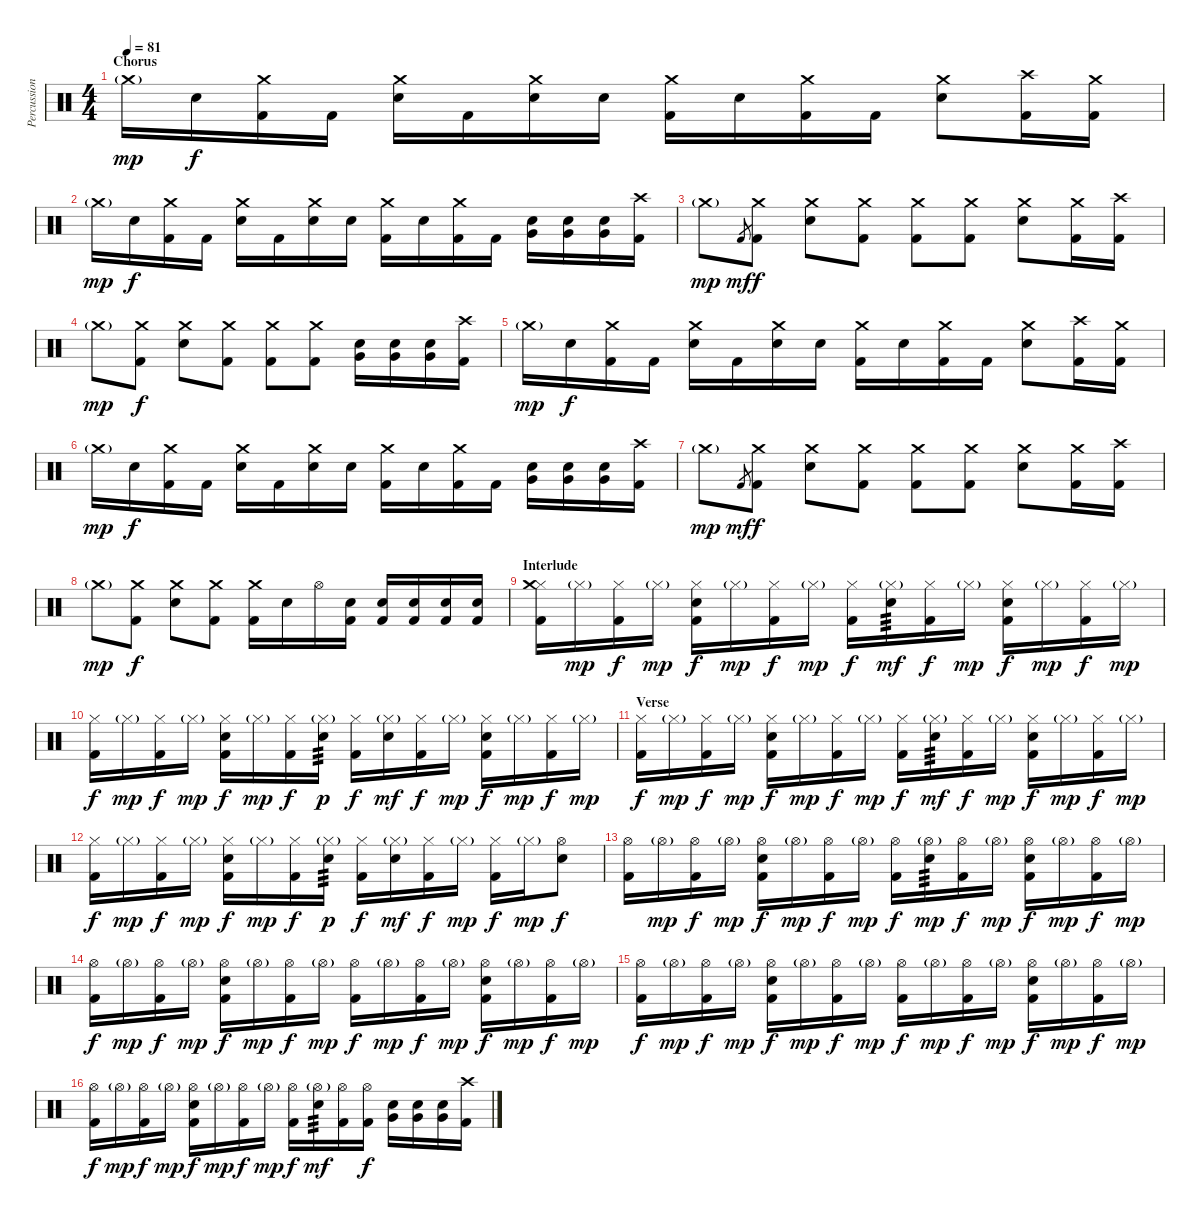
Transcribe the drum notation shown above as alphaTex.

\track ("Percussion" "Percussion") {instrument percussion}
\staff {score}
\articulation defaults
\ts (4 4)
\section ("" "Chorus")
\tempo 81
\clef neutral
\ks c "Crash medium (hit)"{g}.16{dy mp} "Electric Snare (hit)".16{dy f}
("Crash medium (hit)" "Kick (hit) 2").16 "Kick (hit) 2".16 ("Crash medium (hit)" "Electric Snare (hit)").16 "Kick (hit) 2".16 ("Crash medium (hit)" "Electric Snare (hit)").16 "Electric Snare (hit)".16 ("Crash medium (hit)" "Kick (hit) 2").16 "Electric Snare (hit)".16 ("Crash medium (hit)" "Kick (hit) 2").16 "Kick (hit) 2".16 ("Crash medium (hit)" "Electric Snare (hit)").8 ("Crash high (hit)" "Kick (hit) 2").16 ("Crash medium (hit)" "Kick (hit) 2").16 |
"Crash medium (hit)"{g}.16{dy mp} "Electric Snare (hit)".16{dy f} ("Crash medium (hit)" "Kick (hit) 2").16 "Kick (hit) 2".16 ("Crash medium (hit)" "Electric Snare (hit)").16 "Kick (hit) 2".16 ("Crash medium (hit)" "Electric Snare (hit)").16 "Electric Snare (hit)".16 ("Crash medium (hit)" "Kick (hit) 2").16 "Electric Snare (hit)".16 ("Crash medium (hit)" "Kick (hit) 2").16 "Kick (hit) 2".16 ("Very Low Tom (hit)" "Electric Snare (hit)").16 ("Very Low Tom (hit)" "Electric Snare (hit)").16 ("Very Low Tom (hit)" "Electric Snare (hit)").16 ("Crash high (hit)" "Kick (hit) 2").16 |
"Crash medium (hit)"{g}.8{dy mp} "Kick (hit) 2".8{gr dy mf} ("Crash medium (hit)" "Kick (hit) 2").8{dy f} ("Crash medium (hit)" "Electric Snare (hit)").8 ("Crash medium (hit)" "Kick (hit) 2").8 ("Crash medium (hit)" "Kick (hit) 2").8 ("Crash medium (hit)" "Kick (hit) 2").8 ("Crash medium (hit)" "Electric Snare (hit)").8 ("Crash medium (hit)" "Kick (hit) 2").16 ("Crash high (hit)" "Kick (hit) 2").16 |
"Crash medium (hit)"{g}.8{dy mp} ("Crash medium (hit)" "Kick (hit) 2").8{dy f} ("Crash medium (hit)" "Electric Snare (hit)").8 ("Crash medium (hit)" "Kick (hit) 2").8 ("Crash medium (hit)" "Kick (hit) 2").8 ("Crash medium (hit)" "Kick (hit) 2").8 ("Very Low Tom (hit)" "Electric Snare (hit)").16 ("Very Low Tom (hit)" "Electric Snare (hit)").16 ("Very Low Tom (hit)" "Electric Snare (hit)").16 ("Crash high (hit)" "Kick (hit) 2").16 |
"Crash medium (hit)"{g}.16{dy mp} "Electric Snare (hit)".16{dy f} ("Crash medium (hit)" "Kick (hit) 2").16 "Kick (hit) 2".16 ("Crash medium (hit)" "Electric Snare (hit)").16 "Kick (hit) 2".16 ("Crash medium (hit)" "Electric Snare (hit)").16 "Electric Snare (hit)".16 ("Crash medium (hit)" "Kick (hit) 2").16 "Electric Snare (hit)".16 ("Crash medium (hit)" "Kick (hit) 2").16 "Kick (hit) 2".16 ("Crash medium (hit)" "Electric Snare (hit)").8 ("Crash high (hit)" "Kick (hit) 2").16 ("Crash medium (hit)" "Kick (hit) 2").16 |
"Crash medium (hit)"{g}.16{dy mp} "Electric Snare (hit)".16{dy f} ("Crash medium (hit)" "Kick (hit) 2").16 "Kick (hit) 2".16 ("Crash medium (hit)" "Electric Snare (hit)").16 "Kick (hit) 2".16 ("Crash medium (hit)" "Electric Snare (hit)").16 "Electric Snare (hit)".16 ("Crash medium (hit)" "Kick (hit) 2").16 "Electric Snare (hit)".16 ("Crash medium (hit)" "Kick (hit) 2").16 "Kick (hit) 2".16 ("Very Low Tom (hit)" "Electric Snare (hit)").16 ("Very Low Tom (hit)" "Electric Snare (hit)").16 ("Very Low Tom (hit)" "Electric Snare (hit)").16 ("Crash high (hit)" "Kick (hit) 2").16 |
"Crash medium (hit)"{g}.8{dy mp} "Kick (hit) 2".8{gr dy mf} ("Crash medium (hit)" "Kick (hit) 2").8{dy f} ("Crash medium (hit)" "Electric Snare (hit)").8 ("Crash medium (hit)" "Kick (hit) 2").8 ("Crash medium (hit)" "Kick (hit) 2").8 ("Crash medium (hit)" "Kick (hit) 2").8 ("Crash medium (hit)" "Electric Snare (hit)").8 ("Crash medium (hit)" "Kick (hit) 2").16 ("Crash high (hit)" "Kick (hit) 2").16 |
"Crash medium (hit)"{g}.8{dy mp} ("Crash medium (hit)" "Kick (hit) 2").8{dy f} ("Crash medium (hit)" "Electric Snare (hit)").8 ("Crash medium (hit)" "Kick (hit) 2").8 ("Crash medium (hit)" "Kick (hit) 2").16 "Electric Snare (hit)".16 "Hi-Hat (open)".16 ("Electric Snare (hit)" "Kick (hit) 2").16 ("Electric Snare (hit)" "Kick (hit) 2").16 ("Electric Snare (hit)" "Kick (hit) 2").16 ("Electric Snare (hit)" "Kick (hit) 2").16 ("Electric Snare (hit)" "Kick (hit) 2").16 |
\section ("" "Interlude")
("Hi-Hat (closed)" "Crash medium (hit)" "Kick (hit) 2").16 "Hi-Hat (closed)"{g}.16{dy mp} ("Hi-Hat (closed)" "Kick (hit) 2").16{dy f} "Hi-Hat (closed)"{g}.16{dy mp} ("Hi-Hat (closed)" "Electric Snare (hit)" "Kick (hit) 2").16{dy f} "Hi-Hat (closed)"{g}.16{dy mp} ("Hi-Hat (closed)" "Kick (hit) 2").16{dy f} "Hi-Hat (closed)"{g}.16{dy mp} ("Hi-Hat (closed)" "Kick (hit) 2").16{dy f} ("Hi-Hat (closed)"{g} "Electric Snare (hit)").16{tp 3 dy mf} ("Hi-Hat (closed)" "Kick (hit) 2").16{dy f} "Hi-Hat (closed)"{g}.16{dy mp} ("Hi-Hat (closed)" "Electric Snare (hit)" "Kick (hit) 2").16{dy f} "Hi-Hat (closed)"{g}.16{dy mp} ("Hi-Hat (closed)" "Kick (hit) 2").16{dy f} "Hi-Hat (closed)"{g}.16{dy mp} |
("Hi-Hat (closed)" "Kick (hit) 2").16{dy f} "Hi-Hat (closed)"{g}.16{dy mp} ("Hi-Hat (closed)" "Kick (hit) 2").16{dy f} "Hi-Hat (closed)"{g}.16{dy mp} ("Hi-Hat (closed)" "Electric Snare (hit)" "Kick (hit) 2").16{dy f} "Hi-Hat (closed)"{g}.16{dy mp} ("Hi-Hat (closed)" "Kick (hit) 2").16{dy f} ("Hi-Hat (closed)"{g} "Electric Snare (hit)").16{tp 3 dy p} ("Hi-Hat (closed)" "Kick (hit) 2").16{dy f} ("Hi-Hat (closed)"{g} "Electric Snare (hit)").16{dy mf} ("Hi-Hat (closed)" "Kick (hit) 2").16{dy f} "Hi-Hat (closed)"{g}.16{dy mp} ("Hi-Hat (closed)" "Electric Snare (hit)" "Kick (hit) 2").16{dy f} "Hi-Hat (closed)"{g}.16{dy mp} ("Hi-Hat (closed)" "Kick (hit) 2").16{dy f} "Hi-Hat (closed)"{g}.16{dy mp} |
\section ("" "Verse")
("Hi-Hat (closed)" "Kick (hit) 2").16{dy f} "Hi-Hat (closed)"{g}.16{dy mp} ("Hi-Hat (closed)" "Kick (hit) 2").16{dy f} "Hi-Hat (closed)"{g}.16{dy mp} ("Hi-Hat (closed)" "Electric Snare (hit)" "Kick (hit) 2").16{dy f} "Hi-Hat (closed)"{g}.16{dy mp} ("Hi-Hat (closed)" "Kick (hit) 2").16{dy f} "Hi-Hat (closed)"{g}.16{dy mp} ("Hi-Hat (closed)" "Kick (hit) 2").16{dy f} ("Hi-Hat (closed)"{g} "Electric Snare (hit)").16{tp 3 dy mf} ("Hi-Hat (closed)" "Kick (hit) 2").16{dy f} "Hi-Hat (closed)"{g}.16{dy mp} ("Hi-Hat (closed)" "Electric Snare (hit)" "Kick (hit) 2").16{dy f} "Hi-Hat (closed)"{g}.16{dy mp} ("Hi-Hat (closed)" "Kick (hit) 2").16{dy f} "Hi-Hat (closed)"{g}.16{dy mp} |
("Hi-Hat (closed)" "Kick (hit) 2").16{dy f} "Hi-Hat (closed)"{g}.16{dy mp} ("Hi-Hat (closed)" "Kick (hit) 2").16{dy f} "Hi-Hat (closed)"{g}.16{dy mp} ("Hi-Hat (closed)" "Electric Snare (hit)" "Kick (hit) 2").16{dy f} "Hi-Hat (closed)"{g}.16{dy mp} ("Hi-Hat (closed)" "Kick (hit) 2").16{dy f} ("Hi-Hat (closed)"{g} "Electric Snare (hit)").16{tp 3 dy p} ("Hi-Hat (closed)" "Kick (hit) 2").16{dy f} ("Hi-Hat (closed)"{g} "Electric Snare (hit)").16{dy mf} ("Hi-Hat (closed)" "Kick (hit) 2").16{dy f} "Hi-Hat (closed)"{g}.16{dy mp} ("Hi-Hat (closed)" "Kick (hit) 2").16{dy f} "Hi-Hat (closed)"{g}.16{dy mp} ("Hi-Hat (open)" "Electric Snare (hit)").8{dy f} |
("Hi-Hat (open)" "Kick (hit) 2").16 "Hi-Hat (open)"{g}.16{dy mp} ("Hi-Hat (open)" "Kick (hit) 2").16{dy f} "Hi-Hat (open)"{g}.16{dy mp} ("Hi-Hat (open)" "Electric Snare (hit)" "Kick (hit) 2").16{dy f} "Hi-Hat (open)"{g}.16{dy mp} ("Hi-Hat (open)" "Kick (hit) 2").16{dy f} "Hi-Hat (open)"{g}.16{dy mp} ("Hi-Hat (open)" "Kick (hit) 2").16{dy f} ("Hi-Hat (open)"{g} "Electric Snare (hit)").16{tp 3 dy mp} ("Hi-Hat (open)" "Kick (hit) 2").16{dy f} "Hi-Hat (open)"{g}.16{dy mp} ("Hi-Hat (open)" "Electric Snare (hit)" "Kick (hit) 2").16{dy f} "Hi-Hat (open)"{g}.16{dy mp} ("Hi-Hat (open)" "Kick (hit) 2").16{dy f} "Hi-Hat (open)"{g}.16{dy mp} |
("Hi-Hat (open)" "Kick (hit) 2").16{dy f} "Hi-Hat (open)"{g}.16{dy mp} ("Hi-Hat (open)" "Kick (hit) 2").16{dy f} "Hi-Hat (open)"{g}.16{dy mp} ("Hi-Hat (open)" "Electric Snare (hit)" "Kick (hit) 2").16{dy f} "Hi-Hat (open)"{g}.16{dy mp} ("Hi-Hat (open)" "Kick (hit) 2").16{dy f} "Hi-Hat (open)"{g}.16{dy mp} ("Hi-Hat (open)" "Kick (hit) 2").16{dy f} "Hi-Hat (open)"{g}.16{dy mp} ("Hi-Hat (open)" "Kick (hit) 2").16{dy f} "Hi-Hat (open)"{g}.16{dy mp} ("Hi-Hat (open)" "Electric Snare (hit)" "Kick (hit) 2").16{dy f} "Hi-Hat (open)"{g}.16{dy mp} ("Hi-Hat (open)" "Kick (hit) 2").16{dy f} "Hi-Hat (open)"{g}.16{dy mp} |
("Hi-Hat (open)" "Kick (hit) 2").16{dy f} "Hi-Hat (open)"{g}.16{dy mp} ("Hi-Hat (open)" "Kick (hit) 2").16{dy f} "Hi-Hat (open)"{g}.16{dy mp} ("Hi-Hat (open)" "Electric Snare (hit)" "Kick (hit) 2").16{dy f} "Hi-Hat (open)"{g}.16{dy mp} ("Hi-Hat (open)" "Kick (hit) 2").16{dy f} "Hi-Hat (open)"{g}.16{dy mp} ("Hi-Hat (open)" "Kick (hit) 2").16{dy f} "Hi-Hat (open)"{g}.16{dy mp} ("Hi-Hat (open)" "Kick (hit) 2").16{dy f} "Hi-Hat (open)"{g}.16{dy mp} ("Hi-Hat (open)" "Electric Snare (hit)" "Kick (hit) 2").16{dy f} "Hi-Hat (open)"{g}.16{dy mp} ("Hi-Hat (open)" "Kick (hit) 2").16{dy f} "Hi-Hat (open)"{g}.16{dy mp} |
("Hi-Hat (open)" "Kick (hit) 2").16{dy f} "Hi-Hat (open)"{g}.16{dy mp} ("Hi-Hat (open)" "Kick (hit) 2").16{dy f} "Hi-Hat (open)"{g}.16{dy mp} ("Hi-Hat (open)" "Electric Snare (hit)" "Kick (hit) 2").16{dy f} "Hi-Hat (open)"{g}.16{dy mp} ("Hi-Hat (open)" "Kick (hit) 2").16{dy f} "Hi-Hat (open)"{g}.16{dy mp} ("Hi-Hat (open)" "Kick (hit) 2").16{dy f} ("Hi-Hat (open)"{g} "Electric Snare (hit)").16{tp 3 dy mf} ("Hi-Hat (open)" "Kick (hit) 2").16 ("Hi-Hat (open)" "Kick (hit) 2").16{dy f} ("Very Low Tom (hit)" "Electric Snare (hit)").16 ("Very Low Tom (hit)" "Electric Snare (hit)").16 ("Very Low Tom (hit)" "Electric Snare (hit)").16 ("Crash high (hit)" "Kick (hit) 2").16
